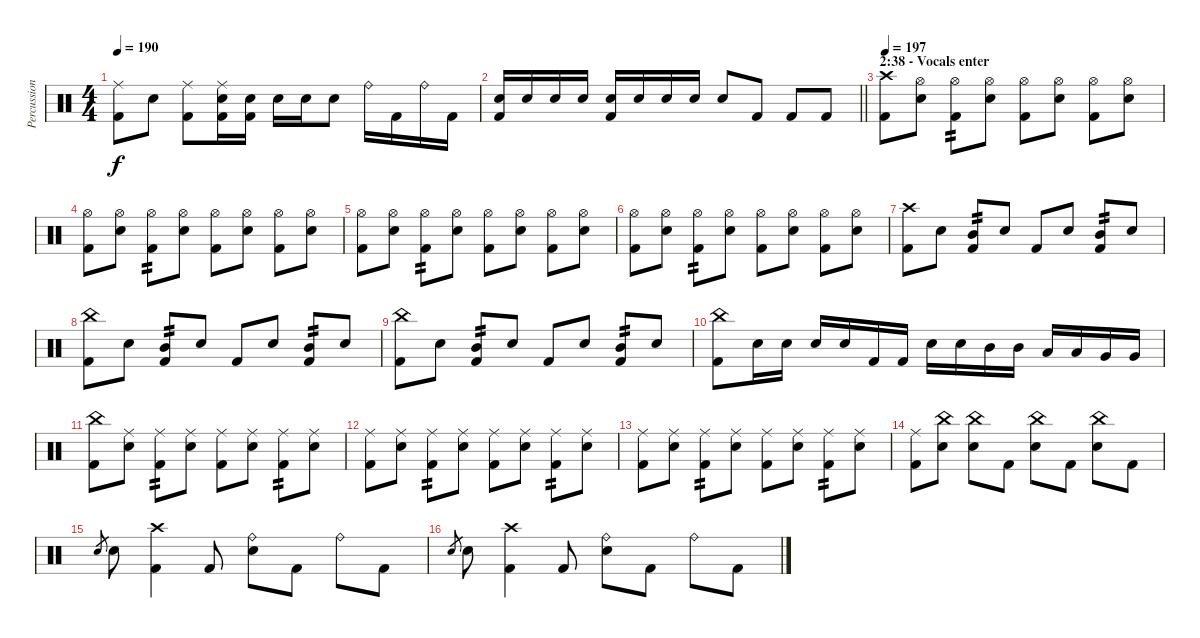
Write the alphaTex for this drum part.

\track ("Percussion" "Percussion") {instrument percussion}
\staff {score}
\articulation defaults
\ts (4 4)
\tempo 190
\clef neutral
\ks c
("Ride (middle)" "Kick (hit) 2").8{dy f} "Electric Snare (hit)".8 ("Ride (middle)" "Kick (hit) 2").8 ("Ride (middle)" "Kick (hit) 2" "Electric Snare (hit)").16 ("Kick (hit) 2" "Electric Snare (hit)").16 "Electric Snare (hit)".16 "Electric Snare (hit)".16 "Electric Snare (hit)".8 "Ride (bell)".16 "Kick (hit) 2".16 "Ride (bell)".16 "Kick (hit) 2".16 |
\barLineRight lightlight
("Electric Snare (hit)" "Kick (hit) 2").16 "Electric Snare (hit)".16 "Electric Snare (hit)".16 "Electric Snare (hit)".16 ("Electric Snare (hit)" "Kick (hit) 2").16 "Electric Snare (hit)".16 "Electric Snare (hit)".16 "Electric Snare (hit)".16 "Electric Snare (hit)".8 "Kick (hit) 2".8 "Kick (hit) 2".8 "Kick (hit) 2".8 |
\section ("" "2:38 - Vocals enter")
\tempo 197
("Crash high (hit)" "Kick (hit) 2").8 ("Electric Snare (hit)" "Hi-Hat (open)").8 ("Hi-Hat (open)" "Kick (hit) 2").8{tp 2} ("Hi-Hat (open)" "Electric Snare (hit)").8 ("Hi-Hat (open)" "Kick (hit) 2").8 ("Hi-Hat (open)" "Electric Snare (hit)").8 ("Hi-Hat (open)" "Kick (hit) 2").8 ("Hi-Hat (open)" "Electric Snare (hit)").8 |
("Hi-Hat (open)" "Kick (hit) 2").8 ("Electric Snare (hit)" "Hi-Hat (open)").8 ("Hi-Hat (open)" "Kick (hit) 2").8{tp 2} ("Hi-Hat (open)" "Electric Snare (hit)").8 ("Hi-Hat (open)" "Kick (hit) 2").8 ("Hi-Hat (open)" "Electric Snare (hit)").8 ("Hi-Hat (open)" "Kick (hit) 2").8 ("Hi-Hat (open)" "Electric Snare (hit)").8 |
("Hi-Hat (open)" "Kick (hit) 2").8 ("Electric Snare (hit)" "Hi-Hat (open)").8 ("Hi-Hat (open)" "Kick (hit) 2").8{tp 2} ("Hi-Hat (open)" "Electric Snare (hit)").8 ("Hi-Hat (open)" "Kick (hit) 2").8 ("Hi-Hat (open)" "Electric Snare (hit)").8 ("Hi-Hat (open)" "Kick (hit) 2").8 ("Hi-Hat (open)" "Electric Snare (hit)").8 |
("Hi-Hat (open)" "Kick (hit) 2").8 ("Electric Snare (hit)" "Hi-Hat (open)").8 ("Hi-Hat (open)" "Kick (hit) 2").8{tp 2} ("Hi-Hat (open)" "Electric Snare (hit)").8 ("Hi-Hat (open)" "Kick (hit) 2").8 ("Hi-Hat (open)" "Electric Snare (hit)").8 ("Hi-Hat (open)" "Kick (hit) 2").8 ("Hi-Hat (open)" "Electric Snare (hit)").8 |
("Crash high (hit)" "Kick (hit) 2").8 "Electric Snare (hit)".8 ("Kick (hit) 2" "Mid Tom (hit)").8{tp 2} "Electric Snare (hit)".8 "Kick (hit) 2".8 "Electric Snare (hit)".8 ("Kick (hit) 2" "Mid Tom (hit)").8{tp 2} "Electric Snare (hit)".8 |
("China (hit)" "Kick (hit) 2").8 "Electric Snare (hit)".8 ("Kick (hit) 2" "Mid Tom (hit)").8{tp 2} "Electric Snare (hit)".8 "Kick (hit) 2".8 "Electric Snare (hit)".8 ("Kick (hit) 2" "Mid Tom (hit)").8{tp 2} "Electric Snare (hit)".8 |
("China (hit)" "Kick (hit) 2").8 "Electric Snare (hit)".8 ("Kick (hit) 2" "Mid Tom (hit)").8{tp 2} "Electric Snare (hit)".8 "Kick (hit) 2".8 "Electric Snare (hit)".8 ("Kick (hit) 2" "Mid Tom (hit)").8{tp 2} "Electric Snare (hit)".8 |
("China (hit)" "Kick (hit) 2").8 "Electric Snare (hit)".16 "Electric Snare (hit)".16 "Electric Snare (hit)".16 "Electric Snare (hit)".16 "Kick (hit) 2".16 "Kick (hit) 2".16 "Electric Snare (hit)".16 "Electric Snare (hit)".16 "Mid Tom (hit)".16 "Mid Tom (hit)".16 "Low Tom (hit)".16 "Low Tom (hit)".16 "Very Low Tom (hit)".16 "Very Low Tom (hit)".16 |
("China (hit)" "Kick (hit) 2").8 ("Electric Snare (hit)" "Ride (middle)").8 ("Kick (hit) 2" "Ride (middle)").8{tp 2} ("Ride (middle)" "Electric Snare (hit)").8 ("Ride (middle)" "Kick (hit) 2").8 ("Ride (middle)" "Electric Snare (hit)").8 ("Ride (middle)" "Kick (hit) 2").8{tp 2} ("Ride (middle)" "Electric Snare (hit)").8 |
("Ride (middle)" "Kick (hit) 2").8 ("Electric Snare (hit)" "Ride (middle)").8 ("Kick (hit) 2" "Ride (middle)").8{tp 2} ("Ride (middle)" "Electric Snare (hit)").8 ("Ride (middle)" "Kick (hit) 2").8 ("Ride (middle)" "Electric Snare (hit)").8 ("Ride (middle)" "Kick (hit) 2").8{tp 2} ("Ride (middle)" "Electric Snare (hit)").8 |
("Ride (middle)" "Kick (hit) 2").8 ("Electric Snare (hit)" "Ride (middle)").8 ("Kick (hit) 2" "Ride (middle)").8{tp 2} ("Ride (middle)" "Electric Snare (hit)").8 ("Ride (middle)" "Kick (hit) 2").8 ("Ride (middle)" "Electric Snare (hit)").8 ("Ride (middle)" "Kick (hit) 2").8{tp 2} ("Ride (middle)" "Electric Snare (hit)").8 |
("Ride (middle)" "Kick (hit) 2").8 ("China (hit)" "Electric Snare (hit)").8 ("China (hit)" "Electric Snare (hit)").8 "Kick (hit) 2".8 ("China (hit)" "Electric Snare (hit)").8 "Kick (hit) 2".8 ("China (hit)" "Electric Snare (hit)").8 "Kick (hit) 2".8 |
"Electric Snare (hit)".8{gr} "Electric Snare (hit)".8 ("Crash high (hit)" "Kick (hit) 2").4 "Kick (hit) 2".8 ("Electric Snare (hit)" "Ride (bell)").8 "Kick (hit) 2".8 "Ride (bell)".8 "Kick (hit) 2".8 |
"Electric Snare (hit)".8{gr} "Electric Snare (hit)".8 ("Crash high (hit)" "Kick (hit) 2").4 "Kick (hit) 2".8 ("Electric Snare (hit)" "Ride (bell)").8 "Kick (hit) 2".8 "Ride (bell)".8 "Kick (hit) 2".8
